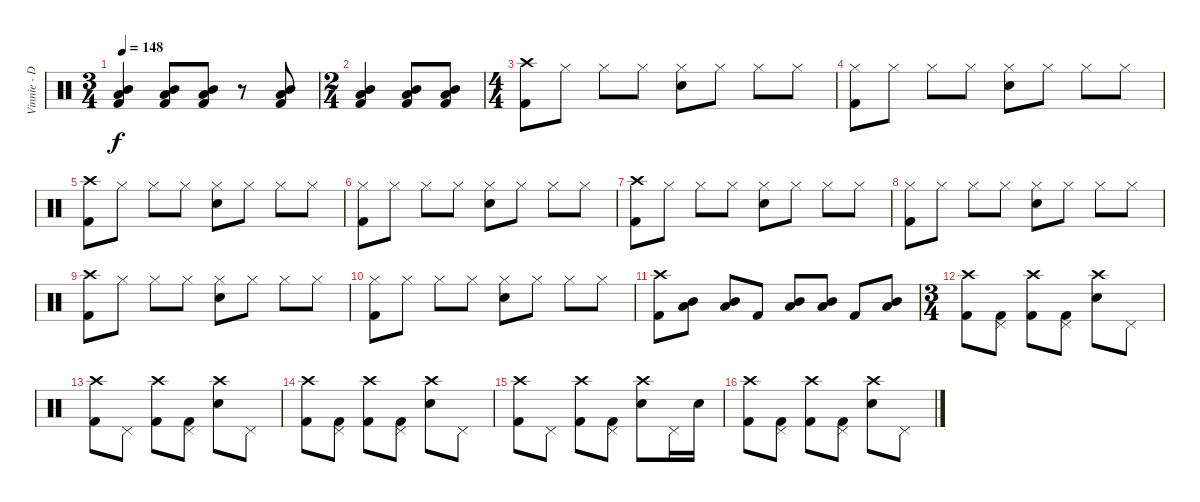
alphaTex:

\track ("Vinnie - Drums" "Vinnie - D") {instrument percussion}
\staff {score}
\articulation defaults
\ts (3 4)
\tempo 148
\clef neutral
\ks c
("Mid Tom (hit)" "Low Tom (hit)" "Kick (hit) 2").4{dy f} ("Mid Tom (hit)" "Low Tom (hit)" "Kick (hit) 2").8 ("Mid Tom (hit)" "Low Tom (hit)" "Kick (hit) 2").8 r.8 ("Mid Tom (hit)" "Low Tom (hit)" "Kick (hit) 2").8 |
\ts (2 4)
("Mid Tom (hit)" "Low Tom (hit)" "Kick (hit) 2").4 ("Mid Tom (hit)" "Low Tom (hit)" "Kick (hit) 2").8 ("Mid Tom (hit)" "Low Tom (hit)" "Kick (hit) 2").8 |
\ts (4 4)
("Crash high (hit)" "Kick (hit) 2").8 "Hi-Hat (closed)".8 "Hi-Hat (closed)".8 "Hi-Hat (closed)".8 ("Hi-Hat (closed)" "Electric Snare (hit)").8 "Hi-Hat (closed)".8 "Hi-Hat (closed)".8 "Hi-Hat (closed)".8 |
("Hi-Hat (closed)" "Kick (hit) 2").8 "Hi-Hat (closed)".8 "Hi-Hat (closed)".8 "Hi-Hat (closed)".8 ("Hi-Hat (closed)" "Electric Snare (hit)").8 "Hi-Hat (closed)".8 "Hi-Hat (closed)".8 "Hi-Hat (closed)".8 |
("Crash high (hit)" "Kick (hit) 2").8 "Hi-Hat (closed)".8 "Hi-Hat (closed)".8 "Hi-Hat (closed)".8 ("Hi-Hat (closed)" "Electric Snare (hit)").8 "Hi-Hat (closed)".8 "Hi-Hat (closed)".8 "Hi-Hat (closed)".8 |
("Hi-Hat (closed)" "Kick (hit) 2").8 "Hi-Hat (closed)".8 "Hi-Hat (closed)".8 "Hi-Hat (closed)".8 ("Hi-Hat (closed)" "Electric Snare (hit)").8 "Hi-Hat (closed)".8 "Hi-Hat (closed)".8 "Hi-Hat (closed)".8 |
("Crash high (hit)" "Kick (hit) 2").8 "Hi-Hat (closed)".8 "Hi-Hat (closed)".8 "Hi-Hat (closed)".8 ("Hi-Hat (closed)" "Electric Snare (hit)").8 "Hi-Hat (closed)".8 "Hi-Hat (closed)".8 "Hi-Hat (closed)".8 |
("Hi-Hat (closed)" "Kick (hit) 2").8 "Hi-Hat (closed)".8 "Hi-Hat (closed)".8 "Hi-Hat (closed)".8 ("Hi-Hat (closed)" "Electric Snare (hit)").8 "Hi-Hat (closed)".8 "Hi-Hat (closed)".8 "Hi-Hat (closed)".8 |
("Crash high (hit)" "Kick (hit) 2").8 "Hi-Hat (closed)".8 "Hi-Hat (closed)".8 "Hi-Hat (closed)".8 ("Hi-Hat (closed)" "Electric Snare (hit)").8 "Hi-Hat (closed)".8 "Hi-Hat (closed)".8 "Hi-Hat (closed)".8 |
("Hi-Hat (closed)" "Kick (hit) 2").8 "Hi-Hat (closed)".8 "Hi-Hat (closed)".8 "Hi-Hat (closed)".8 ("Hi-Hat (closed)" "Electric Snare (hit)").8 "Hi-Hat (closed)".8 "Hi-Hat (closed)".8 "Hi-Hat (closed)".8 |
("Crash high (hit)" "Kick (hit) 2").8 ("Mid Tom (hit)" "Low Tom (hit)").8 ("Mid Tom (hit)" "Low Tom (hit)").8 "Kick (hit) 2".8 ("Mid Tom (hit)" "Low Tom (hit)").8 ("Mid Tom (hit)" "Low Tom (hit)").8 "Kick (hit) 2".8 ("Mid Tom (hit)" "Low Tom (hit)").8 |
\ts (3 4)
("Crash high (hit)" "Kick (hit) 2").8 ("Pedal Hi-Hat (hit)" "Kick (hit) 2").8 ("Crash high (hit)" "Kick (hit) 2").8 ("Pedal Hi-Hat (hit)" "Kick (hit) 2").8 ("Crash high (hit)" "Electric Snare (hit)").8 "Pedal Hi-Hat (hit)".8 |
("Crash high (hit)" "Kick (hit) 2").8 "Pedal Hi-Hat (hit)".8 ("Crash high (hit)" "Kick (hit) 2").8 ("Pedal Hi-Hat (hit)" "Kick (hit) 2").8 ("Crash high (hit)" "Electric Snare (hit)").8 "Pedal Hi-Hat (hit)".8 |
("Crash high (hit)" "Kick (hit) 2").8 ("Pedal Hi-Hat (hit)" "Kick (hit) 2").8 ("Crash high (hit)" "Kick (hit) 2").8 ("Pedal Hi-Hat (hit)" "Kick (hit) 2").8 ("Crash high (hit)" "Electric Snare (hit)").8 "Pedal Hi-Hat (hit)".8 |
("Crash high (hit)" "Kick (hit) 2").8 "Pedal Hi-Hat (hit)".8 ("Crash high (hit)" "Kick (hit) 2").8 ("Pedal Hi-Hat (hit)" "Kick (hit) 2").8 ("Crash high (hit)" "Electric Snare (hit)").8 "Pedal Hi-Hat (hit)".16 "Electric Snare (hit)".16 |
("Crash high (hit)" "Kick (hit) 2").8 ("Pedal Hi-Hat (hit)" "Kick (hit) 2").8 ("Crash high (hit)" "Kick (hit) 2").8 ("Pedal Hi-Hat (hit)" "Kick (hit) 2").8 ("Crash high (hit)" "Electric Snare (hit)").8 "Pedal Hi-Hat (hit)".8
